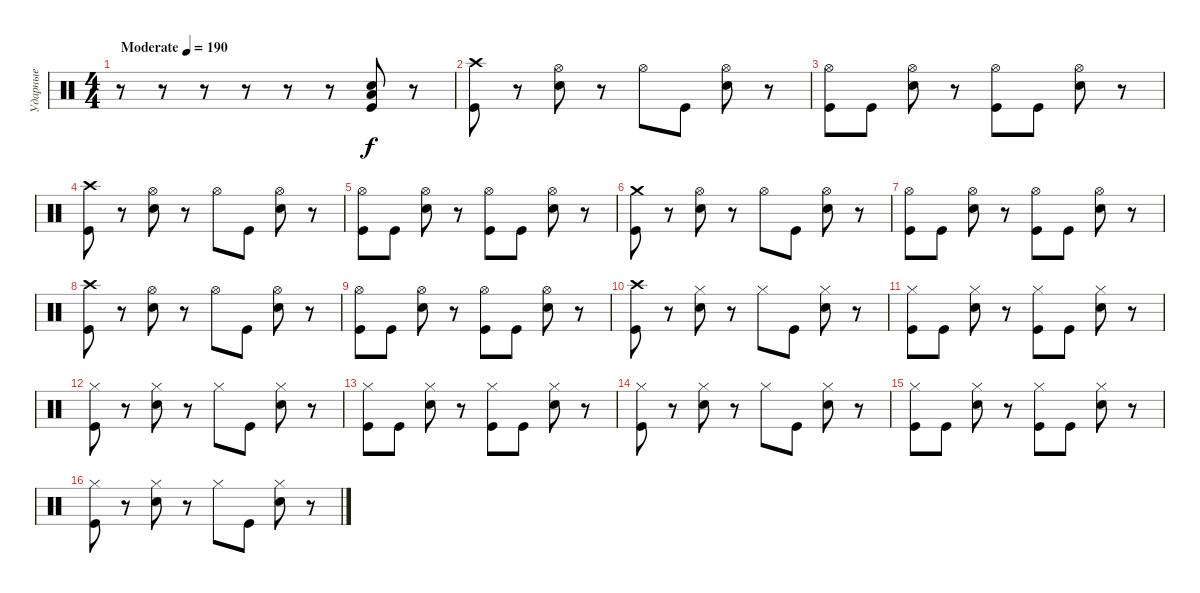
\track ("Ударные" "Ударные") {instrument percussion}
\staff {score}
\articulation defaults
\ts (4 4)
\tempo (190 "Moderate")
\clef neutral
\ks c
r.8{dy f} r.8 r.8 r.8 r.8 r.8 ("Kick (hit)" "Low Floor Tom (hit)" "Snare (hit) 2").8 r.8 |
("Kick (hit)" "Crash high (hit)").8 r.8 ("Snare (hit) 2" "Hi-Hat (open)").8 r.8 "Hi-Hat (open)".8 "Kick (hit)".8 ("Snare (hit) 2" "Hi-Hat (open)").8 r.8 |
("Kick (hit)" "Hi-Hat (open)").8 "Kick (hit)".8 ("Snare (hit) 2" "Hi-Hat (open)").8 r.8 ("Kick (hit)" "Hi-Hat (open)").8 "Kick (hit)".8 ("Snare (hit) 2" "Hi-Hat (open)").8 r.8 |
("Kick (hit)" "Crash high (hit)").8 r.8 ("Snare (hit) 2" "Hi-Hat (open)").8 r.8 "Hi-Hat (open)".8 "Kick (hit)".8 ("Snare (hit) 2" "Hi-Hat (open)").8 r.8 |
("Kick (hit)" "Hi-Hat (open)").8 "Kick (hit)".8 ("Snare (hit) 2" "Hi-Hat (open)").8 r.8 ("Kick (hit)" "Hi-Hat (open)").8 "Kick (hit)".8 ("Snare (hit) 2" "Hi-Hat (open)").8 r.8 |
("Kick (hit)" "Crash medium (hit)").8 r.8 ("Snare (hit) 2" "Hi-Hat (open)").8 r.8 "Hi-Hat (open)".8 "Kick (hit)".8 ("Snare (hit) 2" "Hi-Hat (open)").8 r.8 |
("Kick (hit)" "Hi-Hat (open)").8 "Kick (hit)".8 ("Snare (hit) 2" "Hi-Hat (open)").8 r.8 ("Kick (hit)" "Hi-Hat (open)").8 "Kick (hit)".8 ("Snare (hit) 2" "Hi-Hat (open)").8 r.8 |
("Kick (hit)" "Crash high (hit)").8 r.8 ("Snare (hit) 2" "Hi-Hat (open)").8 r.8 "Hi-Hat (open)".8 "Kick (hit)".8 ("Snare (hit) 2" "Hi-Hat (open)").8 r.8 |
("Kick (hit)" "Hi-Hat (open)").8 "Kick (hit)".8 ("Snare (hit) 2" "Hi-Hat (open)").8 r.8 ("Kick (hit)" "Hi-Hat (open)").8 "Kick (hit)".8 ("Snare (hit) 2" "Hi-Hat (open)").8 r.8 |
("Kick (hit)" "Crash high (hit)").8 r.8 ("Snare (hit) 2" "Hi-Hat (closed)").8 r.8 "Hi-Hat (closed)".8 "Kick (hit)".8 ("Snare (hit) 2" "Hi-Hat (closed)").8 r.8 |
("Kick (hit)" "Hi-Hat (closed)").8 "Kick (hit)".8 ("Snare (hit) 2" "Hi-Hat (closed)").8 r.8 ("Kick (hit)" "Hi-Hat (closed)").8 "Kick (hit)".8 ("Snare (hit) 2" "Hi-Hat (closed)").8 r.8 |
("Kick (hit)" "Hi-Hat (closed)").8 r.8 ("Snare (hit) 2" "Hi-Hat (closed)").8 r.8 "Hi-Hat (closed)".8 "Kick (hit)".8 ("Snare (hit) 2" "Hi-Hat (closed)").8 r.8 |
("Kick (hit)" "Hi-Hat (closed)").8 "Kick (hit)".8 ("Snare (hit) 2" "Hi-Hat (closed)").8 r.8 ("Kick (hit)" "Hi-Hat (closed)").8 "Kick (hit)".8 ("Snare (hit) 2" "Hi-Hat (closed)").8 r.8 |
("Kick (hit)" "Hi-Hat (closed)").8 r.8 ("Snare (hit) 2" "Hi-Hat (closed)").8 r.8 "Hi-Hat (closed)".8 "Kick (hit)".8 ("Snare (hit) 2" "Hi-Hat (closed)").8 r.8 |
("Kick (hit)" "Hi-Hat (closed)").8 "Kick (hit)".8 ("Snare (hit) 2" "Hi-Hat (closed)").8 r.8 ("Kick (hit)" "Hi-Hat (closed)").8 "Kick (hit)".8 ("Snare (hit) 2" "Hi-Hat (closed)").8 r.8 |
("Kick (hit)" "Hi-Hat (closed)").8 r.8 ("Snare (hit) 2" "Hi-Hat (closed)").8 r.8 "Hi-Hat (closed)".8 "Kick (hit)".8 ("Snare (hit) 2" "Hi-Hat (closed)").8 r.8
